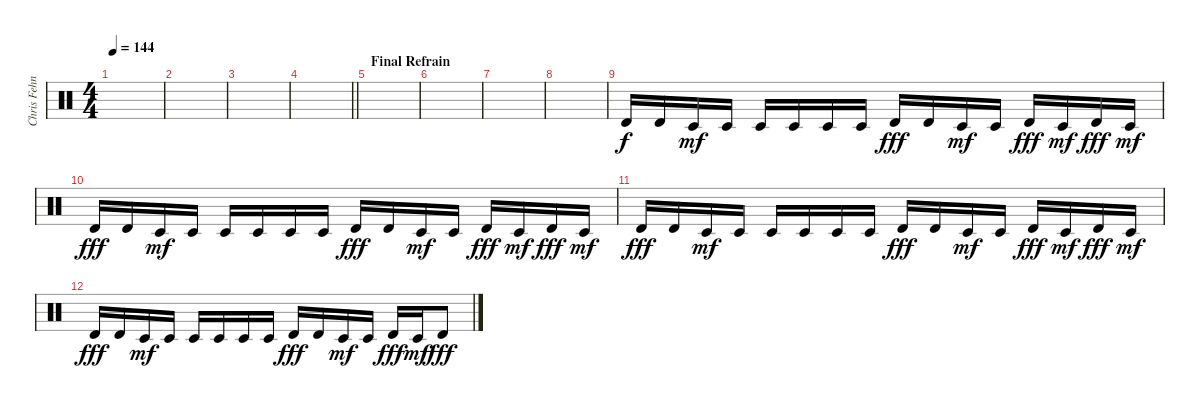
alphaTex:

\track ("Chris Fehn" "Chris Fehn") {instrument percussion}
\staff {score}
\articulation defaults
\ts (4 4)
\tempo 144
\clef neutral
\ks c
|
|
|
\barLineRight lightlight
|
\section ("" "Final Refrain")
|
|
|
|
"Timbale high (hit)".16 "Timbale high (hit)".16 "Timbale low (hit)".16{dy mf} "Timbale low (hit)".16 "Timbale low (hit)".16 "Timbale low (hit)".16 "Timbale low (hit)".16 "Timbale low (hit)".16 "Timbale high (hit)".16{dy fff} "Timbale high (hit)".16 "Timbale low (hit)".16{dy mf} "Timbale low (hit)".16 "Timbale high (hit)".16{dy fff} "Timbale low (hit)".16{dy mf} "Timbale high (hit)".16{dy fff} "Timbale low (hit)".16{dy mf} |
"Timbale high (hit)".16{dy fff} "Timbale high (hit)".16 "Timbale low (hit)".16{dy mf} "Timbale low (hit)".16 "Timbale low (hit)".16 "Timbale low (hit)".16 "Timbale low (hit)".16 "Timbale low (hit)".16 "Timbale high (hit)".16{dy fff} "Timbale high (hit)".16 "Timbale low (hit)".16{dy mf} "Timbale low (hit)".16 "Timbale high (hit)".16{dy fff} "Timbale low (hit)".16{dy mf} "Timbale high (hit)".16{dy fff} "Timbale low (hit)".16{dy mf} |
"Timbale high (hit)".16{dy fff} "Timbale high (hit)".16 "Timbale low (hit)".16{dy mf} "Timbale low (hit)".16 "Timbale low (hit)".16 "Timbale low (hit)".16 "Timbale low (hit)".16 "Timbale low (hit)".16 "Timbale high (hit)".16{dy fff} "Timbale high (hit)".16 "Timbale low (hit)".16{dy mf} "Timbale low (hit)".16 "Timbale high (hit)".16{dy fff} "Timbale low (hit)".16{dy mf} "Timbale high (hit)".16{dy fff} "Timbale low (hit)".16{dy mf} |
"Timbale high (hit)".16{dy fff} "Timbale high (hit)".16 "Timbale low (hit)".16{dy mf} "Timbale low (hit)".16 "Timbale low (hit)".16 "Timbale low (hit)".16 "Timbale low (hit)".16 "Timbale low (hit)".16 "Timbale high (hit)".16{dy fff} "Timbale high (hit)".16 "Timbale low (hit)".16{dy mf} "Timbale low (hit)".16 "Timbale high (hit)".16{dy fff} "Timbale low (hit)".16{dy mf} "Timbale high (hit)".8{dy fff}
